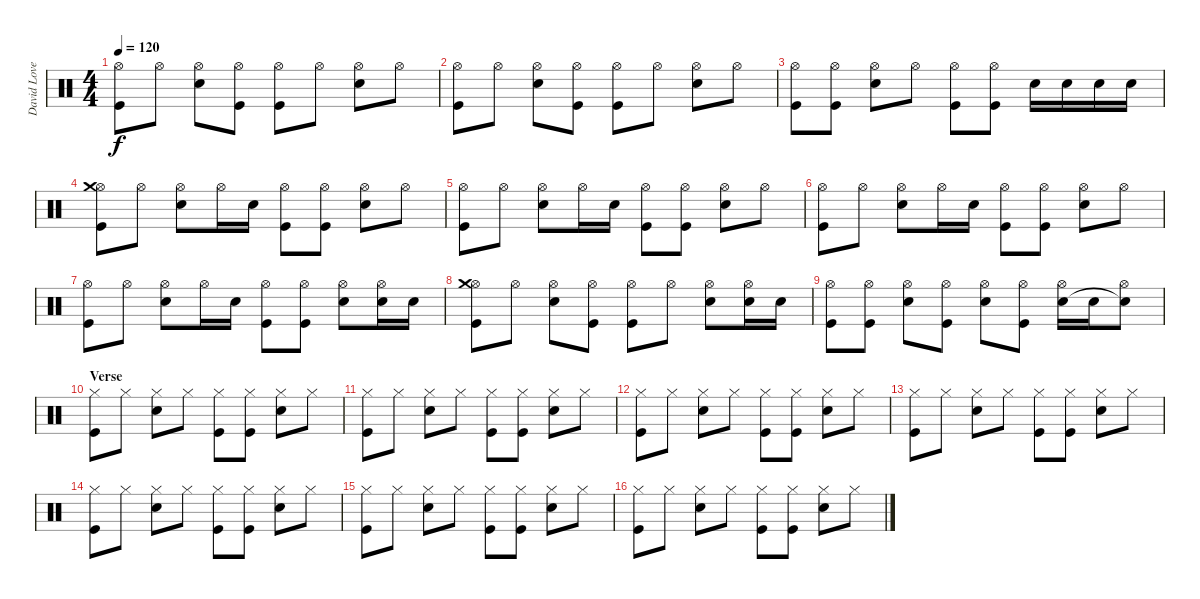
\track ("David Lovering" "David Love") {instrument percussion}
\staff {score}
\articulation defaults
\ts (4 4)
\tempo 120
\clef neutral
\ks c
("Hi-Hat (open)" "Kick (hit)").8{dy f} "Hi-Hat (open)".8 ("Hi-Hat (open)" "Snare (hit) 2").8 ("Hi-Hat (open)" "Kick (hit)").8 ("Hi-Hat (open)" "Kick (hit)").8 "Hi-Hat (open)".8 ("Hi-Hat (open)" "Snare (hit) 2").8 "Hi-Hat (open)".8 |
("Hi-Hat (open)" "Kick (hit)").8 "Hi-Hat (open)".8 ("Hi-Hat (open)" "Snare (hit) 2").8 ("Hi-Hat (open)" "Kick (hit)").8 ("Hi-Hat (open)" "Kick (hit)").8 "Hi-Hat (open)".8 ("Hi-Hat (open)" "Snare (hit) 2").8 "Hi-Hat (open)".8 |
("Hi-Hat (open)" "Kick (hit)").8 ("Hi-Hat (open)" "Kick (hit)").8 ("Hi-Hat (open)" "Snare (hit) 2").8 "Hi-Hat (open)".8 ("Hi-Hat (open)" "Kick (hit)").8 ("Hi-Hat (open)" "Kick (hit)").8 "Snare (hit) 2".16 "Snare (hit) 2".16 "Snare (hit) 2".16 "Snare (hit) 2".16 |
("Hi-Hat (open)" "Crash medium (hit)" "Kick (hit)").8 "Hi-Hat (open)".8 ("Hi-Hat (open)" "Snare (hit) 2").8 "Hi-Hat (open)".16 "Snare (hit) 2".16 ("Hi-Hat (open)" "Kick (hit)").8 ("Hi-Hat (open)" "Kick (hit)").8 ("Hi-Hat (open)" "Snare (hit) 2").8 "Hi-Hat (open)".8 |
("Hi-Hat (open)" "Kick (hit)").8 "Hi-Hat (open)".8 ("Hi-Hat (open)" "Snare (hit) 2").8 "Hi-Hat (open)".16 "Snare (hit) 2".16 ("Hi-Hat (open)" "Kick (hit)").8 ("Hi-Hat (open)" "Kick (hit)").8 ("Hi-Hat (open)" "Snare (hit) 2").8 "Hi-Hat (open)".8 |
("Hi-Hat (open)" "Kick (hit)").8 "Hi-Hat (open)".8 ("Hi-Hat (open)" "Snare (hit) 2").8 "Hi-Hat (open)".16 "Snare (hit) 2".16 ("Hi-Hat (open)" "Kick (hit)").8 ("Hi-Hat (open)" "Kick (hit)").8 ("Hi-Hat (open)" "Snare (hit) 2").8 "Hi-Hat (open)".8 |
("Hi-Hat (open)" "Kick (hit)").8 "Hi-Hat (open)".8 ("Hi-Hat (open)" "Snare (hit) 2").8 "Hi-Hat (open)".16 "Snare (hit) 2".16 ("Hi-Hat (open)" "Kick (hit)").8 ("Hi-Hat (open)" "Kick (hit)").8 ("Hi-Hat (open)" "Snare (hit) 2").8 ("Hi-Hat (open)" "Snare (hit) 2").16 "Snare (hit) 2".16 |
("Hi-Hat (open)" "Crash medium (hit)" "Kick (hit)").8 "Hi-Hat (open)".8 ("Hi-Hat (open)" "Snare (hit) 2").8 ("Hi-Hat (open)" "Kick (hit)").8 ("Hi-Hat (open)" "Kick (hit)").8 "Hi-Hat (open)".8 ("Hi-Hat (open)" "Snare (hit) 2").8 ("Hi-Hat (open)" "Snare (hit) 2").16 "Snare (hit) 2".16 |
("Hi-Hat (open)" "Kick (hit)").8 ("Hi-Hat (open)" "Kick (hit)").8 ("Hi-Hat (open)" "Snare (hit) 2").8 ("Hi-Hat (open)" "Kick (hit)").8 ("Hi-Hat (open)" "Snare (hit) 2").8 ("Hi-Hat (open)" "Kick (hit)").8 ("Hi-Hat (open)" "Snare (hit) 2").16 "Snare (hit) 2".16 ("Hi-Hat (open)" "Snare (hit)"{t}).8 |
\section ("" "Verse")
("Hi-Hat (closed)" "Kick (hit)").8 "Hi-Hat (closed)".8 ("Hi-Hat (closed)" "Snare (hit) 2").8 "Hi-Hat (closed)".8 ("Hi-Hat (closed)" "Kick (hit)").8 ("Hi-Hat (closed)" "Kick (hit)").8 ("Hi-Hat (closed)" "Snare (hit) 2").8 "Hi-Hat (closed)".8 |
("Hi-Hat (closed)" "Kick (hit)").8 "Hi-Hat (closed)".8 ("Hi-Hat (closed)" "Snare (hit) 2").8 "Hi-Hat (closed)".8 ("Hi-Hat (closed)" "Kick (hit)").8 ("Hi-Hat (closed)" "Kick (hit)").8 ("Hi-Hat (closed)" "Snare (hit) 2").8 "Hi-Hat (closed)".8 |
("Hi-Hat (closed)" "Kick (hit)").8 "Hi-Hat (closed)".8 ("Hi-Hat (closed)" "Snare (hit) 2").8 "Hi-Hat (closed)".8 ("Hi-Hat (closed)" "Kick (hit)").8 ("Hi-Hat (closed)" "Kick (hit)").8 ("Hi-Hat (closed)" "Snare (hit) 2").8 "Hi-Hat (closed)".8 |
("Hi-Hat (closed)" "Kick (hit)").8 "Hi-Hat (closed)".8 ("Hi-Hat (closed)" "Snare (hit) 2").8 "Hi-Hat (closed)".8 ("Hi-Hat (closed)" "Kick (hit)").8 ("Hi-Hat (closed)" "Kick (hit)").8 ("Hi-Hat (closed)" "Snare (hit) 2").8 "Hi-Hat (closed)".8 |
("Hi-Hat (closed)" "Kick (hit)").8 "Hi-Hat (closed)".8 ("Hi-Hat (closed)" "Snare (hit) 2").8 "Hi-Hat (closed)".8 ("Hi-Hat (closed)" "Kick (hit)").8 ("Hi-Hat (closed)" "Kick (hit)").8 ("Hi-Hat (closed)" "Snare (hit) 2").8 "Hi-Hat (closed)".8 |
("Hi-Hat (closed)" "Kick (hit)").8 "Hi-Hat (closed)".8 ("Hi-Hat (closed)" "Snare (hit) 2").8 "Hi-Hat (closed)".8 ("Hi-Hat (closed)" "Kick (hit)").8 ("Hi-Hat (closed)" "Kick (hit)").8 ("Hi-Hat (closed)" "Snare (hit) 2").8 "Hi-Hat (closed)".8 |
("Hi-Hat (closed)" "Kick (hit)").8 "Hi-Hat (closed)".8 ("Hi-Hat (closed)" "Snare (hit) 2").8 "Hi-Hat (closed)".8 ("Hi-Hat (closed)" "Kick (hit)").8 ("Hi-Hat (closed)" "Kick (hit)").8 ("Hi-Hat (closed)" "Snare (hit) 2").8 "Hi-Hat (closed)".8
